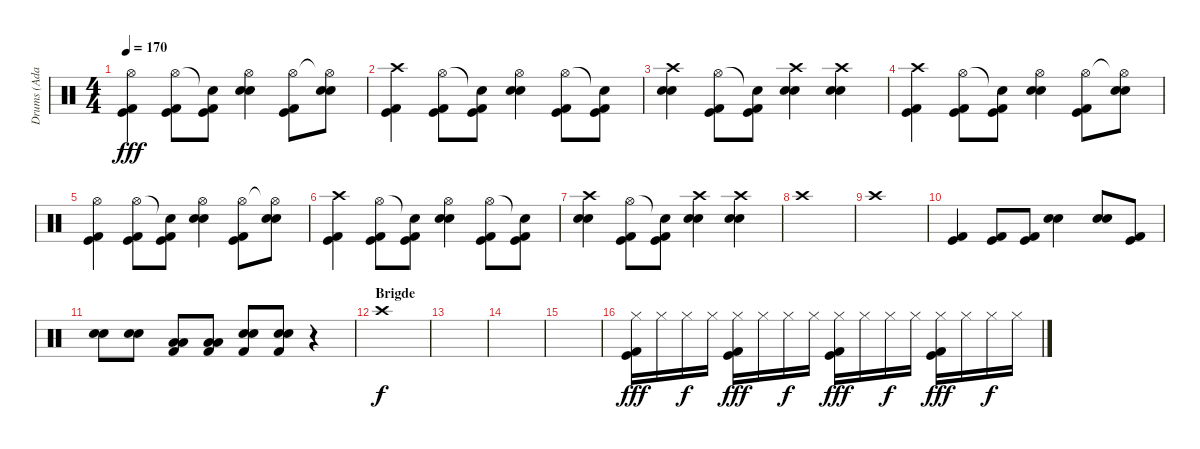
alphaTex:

\track ("Drums (Adam)" "Drums (Ada") {instrument percussion}
\staff {score}
\articulation defaults
\ts (4 4)
\tempo 170
\clef neutral
\ks c
("Hi-Hat (open)" "Kick (hit)" "Kick (hit) 2").4{dy fff} ("Hi-Hat (open)" "Kick (hit)" "Kick (hit) 2").8 ("Snare (hit)"{t} "Kick (hit)" "Kick (hit) 2").8 ("Hi-Hat (open)" "Snare (hit) 2" "Electric Snare (hit)").4 ("Hi-Hat (open)" "Kick (hit)" "Kick (hit) 2").8 ("Hi-Hat (open)"{t} "Snare (hit) 2" "Electric Snare (hit)").8 |
("Crash high (hit)" "Kick (hit)" "Kick (hit) 2").4 ("Hi-Hat (open)" "Kick (hit)" "Kick (hit) 2").8 ("Snare (hit)"{t} "Kick (hit)" "Kick (hit) 2").8 ("Hi-Hat (open)" "Snare (hit) 2" "Electric Snare (hit)").4 ("Hi-Hat (open)" "Kick (hit)" "Kick (hit) 2").8 ("Snare (hit)"{t} "Kick (hit)" "Kick (hit) 2").8 |
("Crash high (hit)" "Snare (hit) 2" "Electric Snare (hit)").4 ("Hi-Hat (open)" "Kick (hit)" "Kick (hit) 2").8 ("Snare (hit)"{t} "Kick (hit)" "Kick (hit) 2").8 ("Crash high (hit)" "Snare (hit) 2" "Electric Snare (hit)").4 ("Crash high (hit)" "Snare (hit) 2" "Electric Snare (hit)").4 |
("Crash high (hit)" "Kick (hit)" "Kick (hit) 2").4 ("Hi-Hat (open)" "Kick (hit)" "Kick (hit) 2").8 ("Snare (hit)"{t} "Kick (hit)" "Kick (hit) 2").8 ("Hi-Hat (open)" "Snare (hit) 2" "Electric Snare (hit)").4 ("Hi-Hat (open)" "Kick (hit)" "Kick (hit) 2").8 ("Hi-Hat (open)"{t} "Snare (hit) 2" "Electric Snare (hit)").8 |
("Hi-Hat (open)" "Kick (hit)" "Kick (hit) 2").4 ("Hi-Hat (open)" "Kick (hit)" "Kick (hit) 2").8 ("Snare (hit)"{t} "Kick (hit)" "Kick (hit) 2").8 ("Hi-Hat (open)" "Snare (hit) 2" "Electric Snare (hit)").4 ("Hi-Hat (open)" "Kick (hit)" "Kick (hit) 2").8 ("Hi-Hat (open)"{t} "Snare (hit) 2" "Electric Snare (hit)").8 |
("Crash high (hit)" "Kick (hit)" "Kick (hit) 2").4 ("Hi-Hat (open)" "Kick (hit)" "Kick (hit) 2").8 ("Snare (hit)"{t} "Kick (hit)" "Kick (hit) 2").8 ("Hi-Hat (open)" "Snare (hit) 2" "Electric Snare (hit)").4 ("Hi-Hat (open)" "Kick (hit)" "Kick (hit) 2").8 ("Snare (hit)"{t} "Kick (hit)" "Kick (hit) 2").8 |
("Crash high (hit)" "Snare (hit) 2" "Electric Snare (hit)").4 ("Hi-Hat (open)" "Kick (hit)" "Kick (hit) 2").8 ("Snare (hit)"{t} "Kick (hit)" "Kick (hit) 2").8 ("Crash high (hit)" "Snare (hit) 2" "Electric Snare (hit)").4 ("Crash high (hit)" "Snare (hit) 2" "Electric Snare (hit)").4 |
"Crash high (hit)".1 |
"Crash high (hit)".1 |
("Kick (hit)" "Kick (hit) 2").4 ("Kick (hit)" "Kick (hit) 2").8 ("Kick (hit)" "Kick (hit) 2").8 ("Snare (hit) 2" "Electric Snare (hit)").4 ("Snare (hit) 2" "Electric Snare (hit)").8 ("Kick (hit)" "Kick (hit) 2").8 |
("Snare (hit) 2" "Electric Snare (hit)").8 ("Snare (hit) 2" "Electric Snare (hit)").8 ("Low Floor Tom (hit)" "Low Tom (hit)" "Kick (hit) 2").8 ("Low Floor Tom (hit)" "Low Tom (hit)" "Kick (hit) 2").8 ("Snare (hit) 2" "Electric Snare (hit)" "Kick (hit) 2").8 ("Snare (hit) 2" "Electric Snare (hit)" "Kick (hit) 2").8 r.4 |
\section ("" "Brigde")
"Crash high (hit)".1{dy f} |
|
|
|
("Hi-Hat (closed)" "Kick (hit)" "Kick (hit) 2").16{dy fff} "Hi-Hat (closed)".16 "Hi-Hat (closed)".16{dy f} "Hi-Hat (closed)".16 ("Hi-Hat (closed)" "Kick (hit)" "Kick (hit) 2").16{dy fff} "Hi-Hat (closed)".16 "Hi-Hat (closed)".16{dy f} "Hi-Hat (closed)".16 ("Hi-Hat (closed)" "Kick (hit)" "Kick (hit) 2").16{dy fff} "Hi-Hat (closed)".16 "Hi-Hat (closed)".16{dy f} "Hi-Hat (closed)".16 ("Hi-Hat (closed)" "Kick (hit)" "Kick (hit) 2").16{dy fff} "Hi-Hat (closed)".16 "Hi-Hat (closed)".16{dy f} "Hi-Hat (closed)".16
